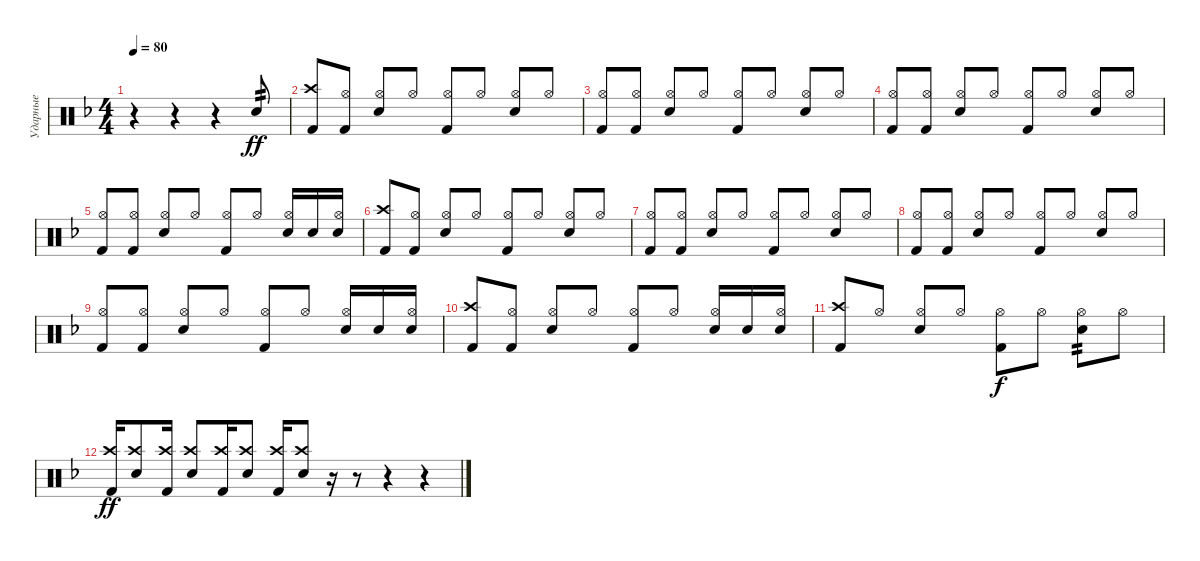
\track ("Ударные" "Ударные") {instrument percussion}
\staff {score}
\articulation defaults
\ts (4 4)
\tempo 80
\clef neutral
\ks f
r.4{dy ff} r.4 r.4 "Snare (hit) 2".8{tp 2 beam Up} |
("Crash high (hit)" "Kick (hit) 2").8{beam Up} ("Hi-Hat (open)" "Kick (hit) 2").8{beam Up} ("Hi-Hat (open)" "Snare (hit) 2").8{beam Up} "Hi-Hat (open)".8{beam Up} ("Hi-Hat (open)" "Kick (hit) 2").8{beam Up} "Hi-Hat (open)".8{beam Up} ("Hi-Hat (open)" "Snare (hit) 2").8{beam Up} "Hi-Hat (open)".8{beam Up} |
("Hi-Hat (open)" "Kick (hit) 2").8{beam Up} ("Hi-Hat (open)" "Kick (hit) 2").8{beam Up} ("Hi-Hat (open)" "Snare (hit) 2").8{beam Up} "Hi-Hat (open)".8{beam Up} ("Hi-Hat (open)" "Kick (hit) 2").8{beam Up} "Hi-Hat (open)".8{beam Up} ("Hi-Hat (open)" "Snare (hit) 2").8{beam Up} "Hi-Hat (open)".8{beam Up} |
("Hi-Hat (open)" "Kick (hit) 2").8{beam Up} ("Hi-Hat (open)" "Kick (hit) 2").8{beam Up} ("Hi-Hat (open)" "Snare (hit) 2").8{beam Up} "Hi-Hat (open)".8{beam Up} ("Hi-Hat (open)" "Kick (hit) 2").8{beam Up} "Hi-Hat (open)".8{beam Up} ("Hi-Hat (open)" "Snare (hit) 2").8{beam Up} "Hi-Hat (open)".8{beam Up} |
("Hi-Hat (open)" "Kick (hit) 2").8{beam Up} ("Hi-Hat (open)" "Kick (hit) 2").8{beam Up} ("Hi-Hat (open)" "Snare (hit) 2").8{beam Up} "Hi-Hat (open)".8{beam Up} ("Hi-Hat (open)" "Kick (hit) 2").8{beam Up} "Hi-Hat (open)".8{beam Up} ("Hi-Hat (open)" "Snare (hit) 2").16{beam Up} "Snare (hit) 2".16{beam Up} ("Hi-Hat (open)" "Snare (hit) 2").16{beam Up} |
("Crash high (hit)" "Kick (hit) 2").8{beam Up} ("Hi-Hat (open)" "Kick (hit) 2").8{beam Up} ("Hi-Hat (open)" "Snare (hit) 2").8{beam Up} "Hi-Hat (open)".8{beam Up} ("Hi-Hat (open)" "Kick (hit) 2").8{beam Up} "Hi-Hat (open)".8{beam Up} ("Hi-Hat (open)" "Snare (hit) 2").8{beam Up} "Hi-Hat (open)".8{beam Up} |
("Hi-Hat (open)" "Kick (hit) 2").8{beam Up} ("Hi-Hat (open)" "Kick (hit) 2").8{beam Up} ("Hi-Hat (open)" "Snare (hit) 2").8{beam Up} "Hi-Hat (open)".8{beam Up} ("Hi-Hat (open)" "Kick (hit) 2").8{beam Up} "Hi-Hat (open)".8{beam Up} ("Hi-Hat (open)" "Snare (hit) 2").8{beam Up} "Hi-Hat (open)".8{beam Up} |
("Hi-Hat (open)" "Kick (hit) 2").8{beam Up} ("Hi-Hat (open)" "Kick (hit) 2").8{beam Up} ("Hi-Hat (open)" "Snare (hit) 2").8{beam Up} "Hi-Hat (open)".8{beam Up} ("Hi-Hat (open)" "Kick (hit) 2").8{beam Up} "Hi-Hat (open)".8{beam Up} ("Hi-Hat (open)" "Snare (hit) 2").8{beam Up} "Hi-Hat (open)".8{beam Up} |
("Hi-Hat (open)" "Kick (hit) 2").8{beam Up} ("Hi-Hat (open)" "Kick (hit) 2").8{beam Up} ("Hi-Hat (open)" "Snare (hit) 2").8{beam Up} "Hi-Hat (open)".8{beam Up} ("Hi-Hat (open)" "Kick (hit) 2").8{beam Up} "Hi-Hat (open)".8{beam Up} ("Hi-Hat (open)" "Snare (hit) 2").16{beam Up} "Snare (hit) 2".16{beam Up} ("Hi-Hat (open)" "Snare (hit) 2").16{beam Up} |
("Crash high (hit)" "Kick (hit) 2").8{beam Up} ("Hi-Hat (open)" "Kick (hit) 2").8{beam Up} ("Hi-Hat (open)" "Snare (hit) 2").8{beam Up} "Hi-Hat (open)".8{beam Up} ("Hi-Hat (open)" "Kick (hit) 2").8{beam Up} "Hi-Hat (open)".8{beam Up} ("Hi-Hat (open)" "Snare (hit) 2").16{beam Up} "Snare (hit) 2".16{beam Up} ("Hi-Hat (open)" "Snare (hit) 2").16{beam Up} |
("Crash high (hit)" "Kick (hit) 2").8{beam Up} "Hi-Hat (open)".8{beam Up} ("Hi-Hat (open)" "Snare (hit) 2").8{beam Up} "Hi-Hat (open)".8{beam Up} ("Hi-Hat (open)" "Kick (hit) 2").8{dy f} "Hi-Hat (open)".8 ("Hi-Hat (open)" "Snare (hit) 2").8{tp 2} "Hi-Hat (open)".8 |
("Crash high (hit)" "Kick (hit) 2").16{dy ff beam Up} ("Crash high (hit)" "Snare (hit) 2").8{beam Up} ("Crash high (hit)" "Kick (hit) 2").16{beam Up} ("Crash high (hit)" "Snare (hit) 2").8{beam Up} ("Crash high (hit)" "Kick (hit) 2").16{beam Up} ("Crash high (hit)" "Snare (hit) 2").8{beam Up} ("Crash high (hit)" "Kick (hit) 2").16{beam Up} ("Crash high (hit)" "Snare (hit) 2").8{beam Up} r.16 r.8 r.4 r.4
